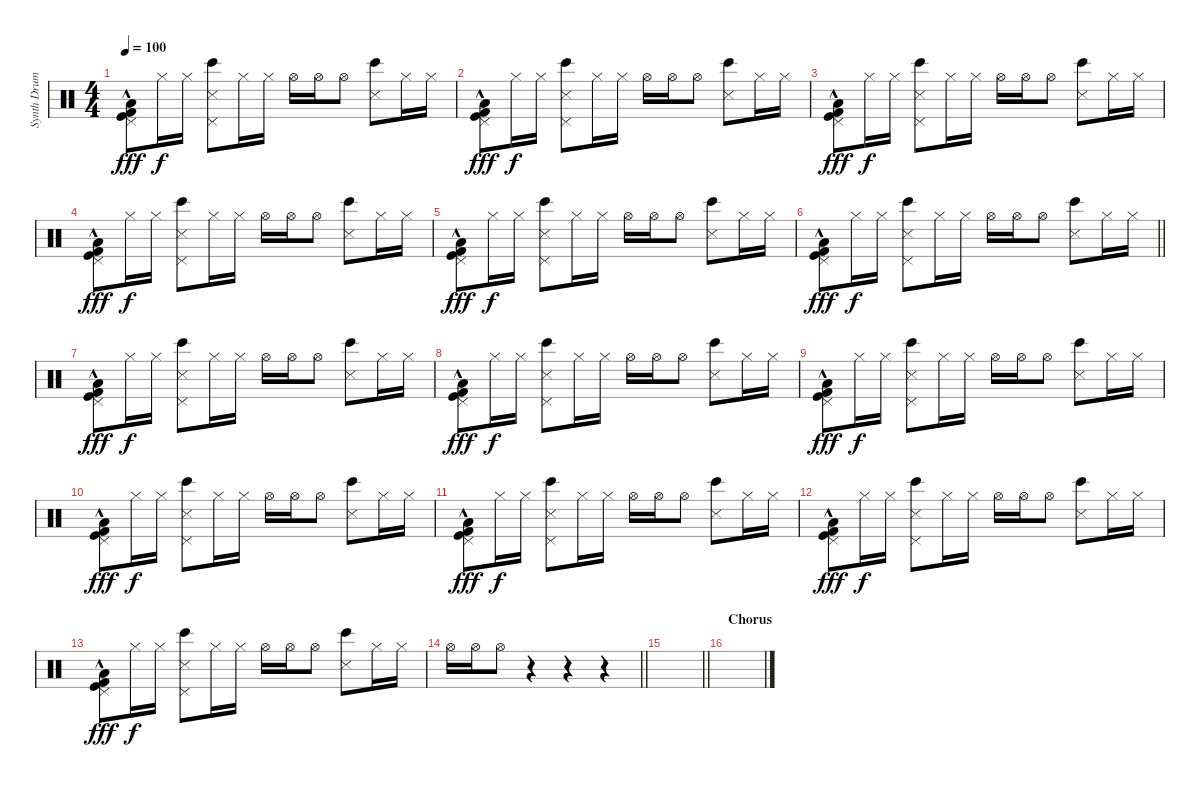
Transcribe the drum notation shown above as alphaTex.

\track ("Synth Drums" "Synth Drum") {instrument percussion}
\staff {score}
\articulation defaults
\ts (4 4)
\tempo 100
\clef neutral
\ks c
("Pedal Hi-Hat (hit)" "Low Floor Tom (hit)"{hac} "Kick (hit) 2"{hac} "Kick (hit)"{hac}).8{dy fff} "Hi-Hat (closed)".16{dy f} "Hi-Hat (closed)".16 ("Pedal Hi-Hat (hit)" "Bongo High (hit)" "Metronome (hit)").8 "Hi-Hat (closed)".16 "Hi-Hat (closed)".16 "Hi-Hat (open)".16 "Hi-Hat (open)".16 "Hi-Hat (open)".8 ("Bongo High (hit)" "Metronome (hit)").8 "Hi-Hat (closed)".16 "Hi-Hat (closed)".16 |
("Pedal Hi-Hat (hit)" "Low Floor Tom (hit)"{hac} "Kick (hit) 2"{hac} "Kick (hit)"{hac}).8{dy fff} "Hi-Hat (closed)".16{dy f} "Hi-Hat (closed)".16 ("Pedal Hi-Hat (hit)" "Bongo High (hit)" "Metronome (hit)").8 "Hi-Hat (closed)".16 "Hi-Hat (closed)".16 "Hi-Hat (open)".16 "Hi-Hat (open)".16 "Hi-Hat (open)".8 ("Bongo High (hit)" "Metronome (hit)").8 "Hi-Hat (closed)".16 "Hi-Hat (closed)".16 |
("Pedal Hi-Hat (hit)" "Low Floor Tom (hit)"{hac} "Kick (hit) 2"{hac} "Kick (hit)"{hac}).8{dy fff} "Hi-Hat (closed)".16{dy f} "Hi-Hat (closed)".16 ("Pedal Hi-Hat (hit)" "Bongo High (hit)" "Metronome (hit)").8 "Hi-Hat (closed)".16 "Hi-Hat (closed)".16 "Hi-Hat (open)".16 "Hi-Hat (open)".16 "Hi-Hat (open)".8 ("Bongo High (hit)" "Metronome (hit)").8 "Hi-Hat (closed)".16 "Hi-Hat (closed)".16 |
("Pedal Hi-Hat (hit)" "Low Floor Tom (hit)"{hac} "Kick (hit) 2"{hac} "Kick (hit)"{hac}).8{dy fff} "Hi-Hat (closed)".16{dy f} "Hi-Hat (closed)".16 ("Pedal Hi-Hat (hit)" "Bongo High (hit)" "Metronome (hit)").8 "Hi-Hat (closed)".16 "Hi-Hat (closed)".16 "Hi-Hat (open)".16 "Hi-Hat (open)".16 "Hi-Hat (open)".8 ("Bongo High (hit)" "Metronome (hit)").8 "Hi-Hat (closed)".16 "Hi-Hat (closed)".16 |
("Pedal Hi-Hat (hit)" "Low Floor Tom (hit)"{hac} "Kick (hit) 2"{hac} "Kick (hit)"{hac}).8{dy fff} "Hi-Hat (closed)".16{dy f} "Hi-Hat (closed)".16 ("Pedal Hi-Hat (hit)" "Bongo High (hit)" "Metronome (hit)").8 "Hi-Hat (closed)".16 "Hi-Hat (closed)".16 "Hi-Hat (open)".16 "Hi-Hat (open)".16 "Hi-Hat (open)".8 ("Bongo High (hit)" "Metronome (hit)").8 "Hi-Hat (closed)".16 "Hi-Hat (closed)".16 |
\barLineRight lightlight
("Pedal Hi-Hat (hit)" "Low Floor Tom (hit)"{hac} "Kick (hit) 2"{hac} "Kick (hit)"{hac}).8{dy fff} "Hi-Hat (closed)".16{dy f} "Hi-Hat (closed)".16 ("Pedal Hi-Hat (hit)" "Bongo High (hit)" "Metronome (hit)").8 "Hi-Hat (closed)".16 "Hi-Hat (closed)".16 "Hi-Hat (open)".16 "Hi-Hat (open)".16 "Hi-Hat (open)".8 ("Bongo High (hit)" "Metronome (hit)").8 "Hi-Hat (closed)".16 "Hi-Hat (closed)".16 |
\section ("" "")
("Pedal Hi-Hat (hit)" "Low Floor Tom (hit)"{hac} "Kick (hit) 2"{hac} "Kick (hit)"{hac}).8{dy fff} "Hi-Hat (closed)".16{dy f} "Hi-Hat (closed)".16 ("Pedal Hi-Hat (hit)" "Bongo High (hit)" "Metronome (hit)").8 "Hi-Hat (closed)".16 "Hi-Hat (closed)".16 "Hi-Hat (open)".16 "Hi-Hat (open)".16 "Hi-Hat (open)".8 ("Bongo High (hit)" "Metronome (hit)").8 "Hi-Hat (closed)".16 "Hi-Hat (closed)".16 |
("Pedal Hi-Hat (hit)" "Low Floor Tom (hit)"{hac} "Kick (hit) 2"{hac} "Kick (hit)"{hac}).8{dy fff} "Hi-Hat (closed)".16{dy f} "Hi-Hat (closed)".16 ("Pedal Hi-Hat (hit)" "Bongo High (hit)" "Metronome (hit)").8 "Hi-Hat (closed)".16 "Hi-Hat (closed)".16 "Hi-Hat (open)".16 "Hi-Hat (open)".16 "Hi-Hat (open)".8 ("Bongo High (hit)" "Metronome (hit)").8 "Hi-Hat (closed)".16 "Hi-Hat (closed)".16 |
("Pedal Hi-Hat (hit)" "Low Floor Tom (hit)"{hac} "Kick (hit) 2"{hac} "Kick (hit)"{hac}).8{dy fff} "Hi-Hat (closed)".16{dy f} "Hi-Hat (closed)".16 ("Pedal Hi-Hat (hit)" "Bongo High (hit)" "Metronome (hit)").8 "Hi-Hat (closed)".16 "Hi-Hat (closed)".16 "Hi-Hat (open)".16 "Hi-Hat (open)".16 "Hi-Hat (open)".8 ("Bongo High (hit)" "Metronome (hit)").8 "Hi-Hat (closed)".16 "Hi-Hat (closed)".16 |
("Pedal Hi-Hat (hit)" "Low Floor Tom (hit)"{hac} "Kick (hit) 2"{hac} "Kick (hit)"{hac}).8{dy fff} "Hi-Hat (closed)".16{dy f} "Hi-Hat (closed)".16 ("Pedal Hi-Hat (hit)" "Bongo High (hit)" "Metronome (hit)").8 "Hi-Hat (closed)".16 "Hi-Hat (closed)".16 "Hi-Hat (open)".16 "Hi-Hat (open)".16 "Hi-Hat (open)".8 ("Bongo High (hit)" "Metronome (hit)").8 "Hi-Hat (closed)".16 "Hi-Hat (closed)".16 |
("Pedal Hi-Hat (hit)" "Low Floor Tom (hit)"{hac} "Kick (hit) 2"{hac} "Kick (hit)"{hac}).8{dy fff} "Hi-Hat (closed)".16{dy f} "Hi-Hat (closed)".16 ("Pedal Hi-Hat (hit)" "Bongo High (hit)" "Metronome (hit)").8 "Hi-Hat (closed)".16 "Hi-Hat (closed)".16 "Hi-Hat (open)".16 "Hi-Hat (open)".16 "Hi-Hat (open)".8 ("Bongo High (hit)" "Metronome (hit)").8 "Hi-Hat (closed)".16 "Hi-Hat (closed)".16 |
("Pedal Hi-Hat (hit)" "Low Floor Tom (hit)"{hac} "Kick (hit) 2"{hac} "Kick (hit)"{hac}).8{dy fff} "Hi-Hat (closed)".16{dy f} "Hi-Hat (closed)".16 ("Pedal Hi-Hat (hit)" "Bongo High (hit)" "Metronome (hit)").8 "Hi-Hat (closed)".16 "Hi-Hat (closed)".16 "Hi-Hat (open)".16 "Hi-Hat (open)".16 "Hi-Hat (open)".8 ("Bongo High (hit)" "Metronome (hit)").8 "Hi-Hat (closed)".16 "Hi-Hat (closed)".16 |
("Pedal Hi-Hat (hit)" "Low Floor Tom (hit)"{hac} "Kick (hit) 2"{hac} "Kick (hit)"{hac}).8{dy fff} "Hi-Hat (closed)".16{dy f} "Hi-Hat (closed)".16 ("Pedal Hi-Hat (hit)" "Bongo High (hit)" "Metronome (hit)").8 "Hi-Hat (closed)".16 "Hi-Hat (closed)".16 "Hi-Hat (open)".16 "Hi-Hat (open)".16 "Hi-Hat (open)".8 ("Bongo High (hit)" "Metronome (hit)").8 "Hi-Hat (closed)".16 "Hi-Hat (closed)".16 |
\barLineRight lightlight "Hi-Hat (open)".16 "Hi-Hat (open)".16 "Hi-Hat (open)".8
r.4 r.4 r.4 |
\barLineRight lightlight
|
\section ("" "Chorus")
